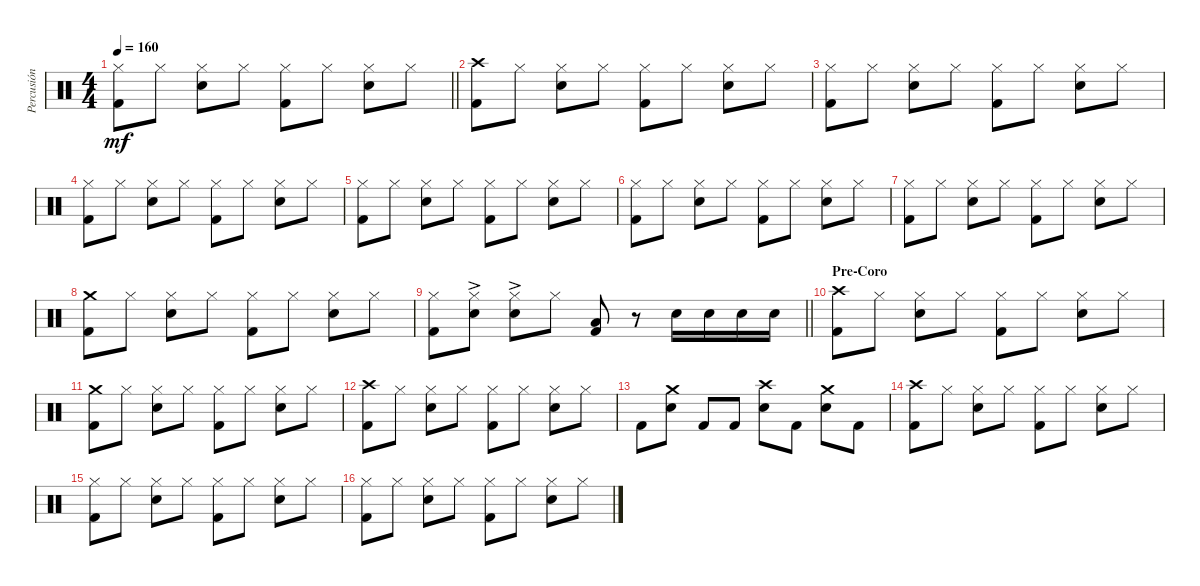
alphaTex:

\track ("Percusión" "Percusión") {instrument percussion}
\staff {score}
\articulation defaults
\ts (4 4)
\tempo 160
\clef neutral
\barLineRight lightlight
\ks c
("Hi-Hat (closed)" "Kick (hit) 2").8{dy mf} "Hi-Hat (closed)".8 ("Hi-Hat (closed)" "Electric Snare (hit)").8 "Hi-Hat (closed)".8 ("Hi-Hat (closed)" "Kick (hit) 2").8 "Hi-Hat (closed)".8 ("Hi-Hat (closed)" "Electric Snare (hit)").8 "Hi-Hat (closed)".8 |
("Crash high (hit)" "Kick (hit) 2").8 "Hi-Hat (closed)".8 ("Hi-Hat (closed)" "Electric Snare (hit)").8 "Hi-Hat (closed)".8 ("Hi-Hat (closed)" "Kick (hit) 2").8 "Hi-Hat (closed)".8 ("Hi-Hat (closed)" "Electric Snare (hit)").8 "Hi-Hat (closed)".8 |
("Hi-Hat (closed)" "Kick (hit) 2").8 "Hi-Hat (closed)".8 ("Hi-Hat (closed)" "Electric Snare (hit)").8 "Hi-Hat (closed)".8 ("Hi-Hat (closed)" "Kick (hit) 2").8 "Hi-Hat (closed)".8 ("Hi-Hat (closed)" "Electric Snare (hit)").8 "Hi-Hat (closed)".8 |
("Hi-Hat (closed)" "Kick (hit) 2").8 "Hi-Hat (closed)".8 ("Hi-Hat (closed)" "Electric Snare (hit)").8 "Hi-Hat (closed)".8 ("Hi-Hat (closed)" "Kick (hit) 2").8 "Hi-Hat (closed)".8 ("Hi-Hat (closed)" "Electric Snare (hit)").8 "Hi-Hat (closed)".8 |
("Hi-Hat (closed)" "Kick (hit) 2").8 "Hi-Hat (closed)".8 ("Hi-Hat (closed)" "Electric Snare (hit)").8 "Hi-Hat (closed)".8 ("Hi-Hat (closed)" "Kick (hit) 2").8 "Hi-Hat (closed)".8 ("Hi-Hat (closed)" "Electric Snare (hit)").8 "Hi-Hat (closed)".8 |
("Hi-Hat (closed)" "Kick (hit) 2").8 "Hi-Hat (closed)".8 ("Hi-Hat (closed)" "Electric Snare (hit)").8 "Hi-Hat (closed)".8 ("Hi-Hat (closed)" "Kick (hit) 2").8 "Hi-Hat (closed)".8 ("Hi-Hat (closed)" "Electric Snare (hit)").8 "Hi-Hat (closed)".8 |
("Hi-Hat (closed)" "Kick (hit) 2").8 "Hi-Hat (closed)".8 ("Hi-Hat (closed)" "Electric Snare (hit)").8 "Hi-Hat (closed)".8 ("Hi-Hat (closed)" "Kick (hit) 2").8 "Hi-Hat (closed)".8 ("Hi-Hat (closed)" "Electric Snare (hit)").8 "Hi-Hat (closed)".8 |
("Crash medium (hit)" "Kick (hit) 2").8 "Hi-Hat (closed)".8 ("Hi-Hat (closed)" "Electric Snare (hit)").8 "Hi-Hat (closed)".8 ("Hi-Hat (closed)" "Kick (hit) 2").8 "Hi-Hat (closed)".8 ("Hi-Hat (closed)" "Electric Snare (hit)").8 "Hi-Hat (closed)".8 |
\barLineRight lightlight
("Hi-Hat (closed)" "Kick (hit) 2").8 ("Hi-Hat (closed)" "Electric Snare (hit)"{ac}).8 ("Hi-Hat (closed)" "Electric Snare (hit)"{ac}).8 "Hi-Hat (closed)".8 ("Low Floor Tom (hit)" "Kick (hit) 2").8 r.8 "Electric Snare (hit)".16 "Electric Snare (hit)".16 "Electric Snare (hit)".16 "Electric Snare (hit)".16 |
\section ("" "Pre-Coro")
("Crash high (hit)" "Kick (hit) 2").8 "Hi-Hat (closed)".8 ("Hi-Hat (closed)" "Electric Snare (hit)").8 "Hi-Hat (closed)".8 ("Hi-Hat (closed)" "Kick (hit) 2").8 "Hi-Hat (closed)".8 ("Hi-Hat (closed)" "Electric Snare (hit)").8 "Hi-Hat (closed)".8 |
("Crash medium (hit)" "Kick (hit) 2").8 "Hi-Hat (closed)".8 ("Hi-Hat (closed)" "Electric Snare (hit)").8 "Hi-Hat (closed)".8 ("Hi-Hat (closed)" "Kick (hit) 2").8 "Hi-Hat (closed)".8 ("Hi-Hat (closed)" "Electric Snare (hit)").8 "Hi-Hat (closed)".8 |
("Crash high (hit)" "Kick (hit) 2").8 "Hi-Hat (closed)".8 ("Hi-Hat (closed)" "Electric Snare (hit)").8 "Hi-Hat (closed)".8 ("Hi-Hat (closed)" "Kick (hit) 2").8 "Hi-Hat (closed)".8 ("Hi-Hat (closed)" "Electric Snare (hit)").8 "Hi-Hat (closed)".8 |
"Kick (hit) 2".8 ("Crash medium (hit)" "Electric Snare (hit)").8 "Kick (hit) 2".8 "Kick (hit) 2".8 ("Crash high (hit)" "Electric Snare (hit)").8 "Kick (hit) 2".8 ("Crash medium (hit)" "Electric Snare (hit)").8 "Kick (hit) 2".8 |
("Crash high (hit)" "Kick (hit) 2").8 "Hi-Hat (closed)".8 ("Hi-Hat (closed)" "Electric Snare (hit)").8 "Hi-Hat (closed)".8 ("Hi-Hat (closed)" "Kick (hit) 2").8 "Hi-Hat (closed)".8 ("Hi-Hat (closed)" "Electric Snare (hit)").8 "Hi-Hat (closed)".8 |
("Hi-Hat (closed)" "Kick (hit) 2").8 "Hi-Hat (closed)".8 ("Hi-Hat (closed)" "Electric Snare (hit)").8 "Hi-Hat (closed)".8 ("Hi-Hat (closed)" "Kick (hit) 2").8 "Hi-Hat (closed)".8 ("Hi-Hat (closed)" "Electric Snare (hit)").8 "Hi-Hat (closed)".8 |
("Hi-Hat (closed)" "Kick (hit) 2").8 "Hi-Hat (closed)".8 ("Hi-Hat (closed)" "Electric Snare (hit)").8 "Hi-Hat (closed)".8 ("Hi-Hat (closed)" "Kick (hit) 2").8 "Hi-Hat (closed)".8 ("Hi-Hat (closed)" "Electric Snare (hit)").8 "Hi-Hat (closed)".8
